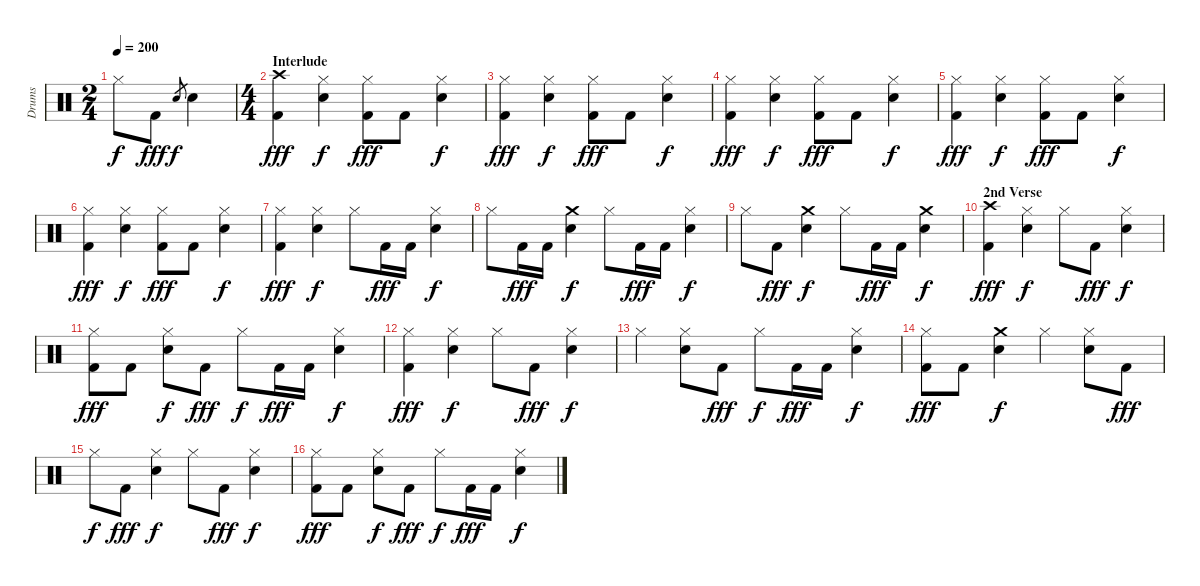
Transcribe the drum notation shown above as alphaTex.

\track ("Drums" "Drums") {instrument percussion}
\staff {score}
\articulation defaults
\ts (2 4)
\tempo 200
\clef neutral
\ks c "Hi-Hat (closed)".8{dy f} "Kick (hit) 2".8{dy fff} "Snare (hit) 2".8{gr dy f} "Snare (hit) 2".4
|
\ts (4 4)
\section ("" "Interlude")
("Crash high (hit)" "Kick (hit) 2").4{dy fff} ("Hi-Hat (closed)" "Snare (hit) 2").4{dy f} ("Hi-Hat (closed)" "Kick (hit) 2").8{dy fff} "Kick (hit) 2".8 ("Hi-Hat (closed)" "Snare (hit) 2").4{dy f} |
("Hi-Hat (closed)" "Kick (hit) 2").4{dy fff} ("Hi-Hat (closed)" "Snare (hit) 2").4{dy f} ("Hi-Hat (closed)" "Kick (hit) 2").8{dy fff} "Kick (hit) 2".8 ("Hi-Hat (closed)" "Snare (hit) 2").4{dy f} |
("Hi-Hat (closed)" "Kick (hit) 2").4{dy fff} ("Hi-Hat (closed)" "Snare (hit) 2").4{dy f} ("Hi-Hat (closed)" "Kick (hit) 2").8{dy fff} "Kick (hit) 2".8 ("Hi-Hat (closed)" "Snare (hit) 2").4{dy f} |
("Hi-Hat (closed)" "Kick (hit) 2").4{dy fff} ("Hi-Hat (closed)" "Snare (hit) 2").4{dy f} ("Hi-Hat (closed)" "Kick (hit) 2").8{dy fff} "Kick (hit) 2".8 ("Hi-Hat (closed)" "Snare (hit) 2").4{dy f} |
("Hi-Hat (closed)" "Kick (hit) 2").4{dy fff} ("Hi-Hat (closed)" "Snare (hit) 2").4{dy f} ("Hi-Hat (closed)" "Kick (hit) 2").8{dy fff} "Kick (hit) 2".8 ("Hi-Hat (closed)" "Snare (hit) 2").4{dy f} |
("Hi-Hat (closed)" "Kick (hit) 2").4{dy fff} ("Hi-Hat (closed)" "Snare (hit) 2").4{dy f} "Hi-Hat (closed)".8 "Kick (hit) 2".16{dy fff} "Kick (hit) 2".16 ("Hi-Hat (closed)" "Snare (hit) 2").4{dy f} |
"Hi-Hat (closed)".8 "Kick (hit) 2".16{dy fff} "Kick (hit) 2".16 ("Crash medium (hit)" "Snare (hit) 2").4{dy f} "Hi-Hat (closed)".8 "Kick (hit) 2".16{dy fff} "Kick (hit) 2".16 ("Hi-Hat (closed)" "Snare (hit) 2").4{dy f} |
"Hi-Hat (closed)".8 "Kick (hit) 2".8{dy fff} ("Crash medium (hit)" "Snare (hit) 2").4{dy f} "Hi-Hat (closed)".8 "Kick (hit) 2".16{dy fff} "Kick (hit) 2".16 ("Crash medium (hit)" "Snare (hit) 2").4{dy f} |
\section ("" "2nd Verse")
("Crash high (hit)" "Kick (hit) 2").4{dy fff} ("Hi-Hat (closed)" "Snare (hit) 2").4{dy f} "Hi-Hat (closed)".8 "Kick (hit) 2".8{dy fff} ("Hi-Hat (closed)" "Snare (hit) 2").4{dy f} |
("Hi-Hat (closed)" "Kick (hit) 2").8{dy fff} "Kick (hit) 2".8 ("Hi-Hat (closed)" "Snare (hit) 2").8{dy f} "Kick (hit) 2".8{dy fff} "Hi-Hat (closed)".8{dy f} "Kick (hit) 2".16{dy fff} "Kick (hit) 2".16 ("Hi-Hat (closed)" "Snare (hit) 2").4{dy f} |
("Hi-Hat (closed)" "Kick (hit) 2").4{dy fff} ("Hi-Hat (closed)" "Snare (hit) 2").4{dy f} "Hi-Hat (closed)".8 "Kick (hit) 2".8{dy fff} ("Hi-Hat (closed)" "Snare (hit) 2").4{dy f} |
"Hi-Hat (closed)".4 ("Hi-Hat (closed)" "Snare (hit) 2").8 "Kick (hit) 2".8{dy fff} "Hi-Hat (closed)".8{dy f} "Kick (hit) 2".16{dy fff} "Kick (hit) 2".16 ("Hi-Hat (closed)" "Snare (hit) 2").4{dy f} |
("Hi-Hat (closed)" "Kick (hit) 2").8{dy fff} "Kick (hit) 2".8 ("Crash medium (hit)" "Snare (hit) 2").4{dy f} "Hi-Hat (closed)".4 ("Hi-Hat (closed)" "Snare (hit) 2").8 "Kick (hit) 2".8{dy fff} |
"Hi-Hat (closed)".8{dy f} "Kick (hit) 2".8{dy fff} ("Hi-Hat (closed)" "Snare (hit) 2").4{dy f} "Hi-Hat (closed)".8 "Kick (hit) 2".8{dy fff} ("Hi-Hat (closed)" "Snare (hit) 2").4{dy f} |
("Hi-Hat (closed)" "Kick (hit) 2").8{dy fff} "Kick (hit) 2".8 ("Hi-Hat (closed)" "Snare (hit) 2").8{dy f} "Kick (hit) 2".8{dy fff} "Hi-Hat (closed)".8{dy f} "Kick (hit) 2".16{dy fff} "Kick (hit) 2".16 ("Hi-Hat (closed)" "Snare (hit) 2").4{dy f}
